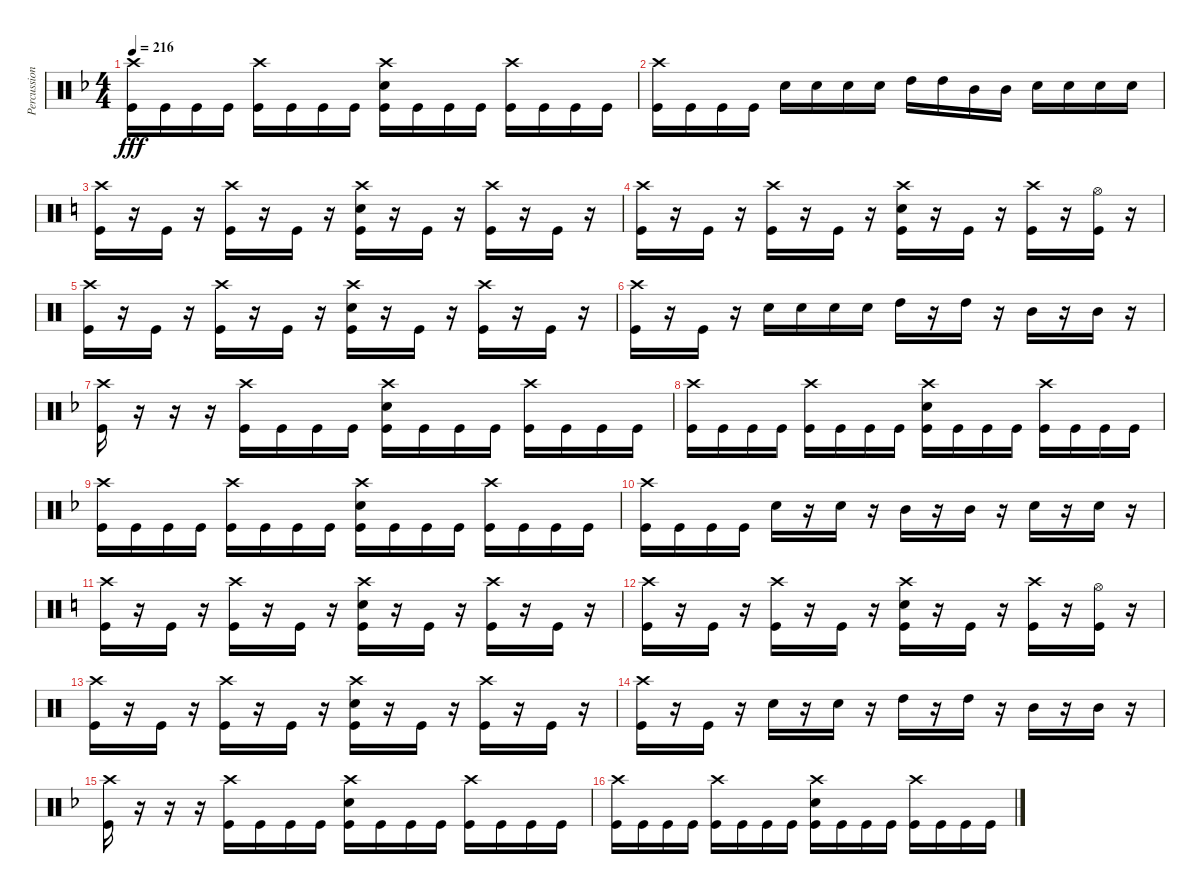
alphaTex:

\track ("Percussion" "Percussion") {instrument percussion}
\staff {score}
\articulation defaults
\ts (4 4)
\tempo 216
\clef neutral
\ks f
("Crash high (hit)" "Kick (hit)").16{dy fff} "Kick (hit)".16 "Kick (hit)".16 "Kick (hit)".16 ("Crash high (hit)" "Kick (hit)").16 "Kick (hit)".16 "Kick (hit)".16 "Kick (hit)".16 ("Crash high (hit)" "Electric Snare (hit)" "Kick (hit)").16 "Kick (hit)".16 "Kick (hit)".16 "Kick (hit)".16 ("Crash high (hit)" "Kick (hit)").16 "Kick (hit)".16 "Kick (hit)".16 "Kick (hit)".16 |
("Crash high (hit)" "Kick (hit)").16 "Kick (hit)".16 "Kick (hit)".16 "Kick (hit)".16 "Electric Snare (hit)".16 "Electric Snare (hit)".16 "Electric Snare (hit)".16 "Electric Snare (hit)".16 "High Tom (hit)".16 "High Tom (hit)".16 "Mid Tom (hit)".16 "Mid Tom (hit)".16 "Electric Snare (hit)".16 "Electric Snare (hit)".16 "Electric Snare (hit)".16 "Electric Snare (hit)".16 |
\ks c
("Crash high (hit)" "Kick (hit)").16 r.16 "Kick (hit)".16 r.16 ("Crash high (hit)" "Kick (hit)").16 r.16 "Kick (hit)".16 r.16 ("Crash high (hit)" "Electric Snare (hit)" "Kick (hit)").16 r.16 "Kick (hit)".16 r.16 ("Crash high (hit)" "Kick (hit)").16 r.16 "Kick (hit)".16 r.16 |
("Crash high (hit)" "Kick (hit)").16 r.16 "Kick (hit)".16 r.16 ("Crash high (hit)" "Kick (hit)").16 r.16 "Kick (hit)".16 r.16 ("Crash high (hit)" "Electric Snare (hit)" "Kick (hit)").16 r.16 "Kick (hit)".16 r.16 ("Crash high (hit)" "Kick (hit)").16 r.16 ("Hi-Hat (open)" "Kick (hit)").16 r.16 |
("Crash high (hit)" "Kick (hit)").16 r.16 "Kick (hit)".16 r.16 ("Crash high (hit)" "Kick (hit)").16 r.16 "Kick (hit)".16 r.16 ("Crash high (hit)" "Electric Snare (hit)" "Kick (hit)").16 r.16 "Kick (hit)".16 r.16 ("Crash high (hit)" "Kick (hit)").16 r.16 "Kick (hit)".16 r.16 |
("Crash high (hit)" "Kick (hit)").16 r.16 "Kick (hit)".16 r.16 "Electric Snare (hit)".16 "Electric Snare (hit)".16 "Electric Snare (hit)".16 "Electric Snare (hit)".16 "High Tom (hit)".16 r.16 "High Tom (hit)".16 r.16 "Mid Tom (hit)".16 r.16 "Mid Tom (hit)".16 r.16 |
\ks f
("Crash high (hit)" "Kick (hit)").16 r.16 r.16 r.16 ("Crash high (hit)" "Kick (hit)").16 "Kick (hit)".16 "Kick (hit)".16 "Kick (hit)".16 ("Crash high (hit)" "Electric Snare (hit)" "Kick (hit)").16 "Kick (hit)".16 "Kick (hit)".16 "Kick (hit)".16 ("Crash high (hit)" "Kick (hit)").16 "Kick (hit)".16 "Kick (hit)".16 "Kick (hit)".16 |
("Crash high (hit)" "Kick (hit)").16 "Kick (hit)".16 "Kick (hit)".16 "Kick (hit)".16 ("Crash high (hit)" "Kick (hit)").16 "Kick (hit)".16 "Kick (hit)".16 "Kick (hit)".16 ("Crash high (hit)" "Electric Snare (hit)" "Kick (hit)").16 "Kick (hit)".16 "Kick (hit)".16 "Kick (hit)".16 ("Crash high (hit)" "Kick (hit)").16 "Kick (hit)".16 "Kick (hit)".16 "Kick (hit)".16 |
("Crash high (hit)" "Kick (hit)").16 "Kick (hit)".16 "Kick (hit)".16 "Kick (hit)".16 ("Crash high (hit)" "Kick (hit)").16 "Kick (hit)".16 "Kick (hit)".16 "Kick (hit)".16 ("Crash high (hit)" "Electric Snare (hit)" "Kick (hit)").16 "Kick (hit)".16 "Kick (hit)".16 "Kick (hit)".16 ("Crash high (hit)" "Kick (hit)").16 "Kick (hit)".16 "Kick (hit)".16 "Kick (hit)".16 |
("Crash high (hit)" "Kick (hit)").16 "Kick (hit)".16 "Kick (hit)".16 "Kick (hit)".16 "Electric Snare (hit)".16 r.16 "Electric Snare (hit)".16 r.16 "Mid Tom (hit)".16 r.16 "Mid Tom (hit)".16 r.16 "Electric Snare (hit)".16 r.16 "Electric Snare (hit)".16 r.16 |
\ks c
("Crash high (hit)" "Kick (hit)").16 r.16 "Kick (hit)".16 r.16 ("Crash high (hit)" "Kick (hit)").16 r.16 "Kick (hit)".16 r.16 ("Crash high (hit)" "Electric Snare (hit)" "Kick (hit)").16 r.16 "Kick (hit)".16 r.16 ("Crash high (hit)" "Kick (hit)").16 r.16 "Kick (hit)".16 r.16 |
("Crash high (hit)" "Kick (hit)").16 r.16 "Kick (hit)".16 r.16 ("Crash high (hit)" "Kick (hit)").16 r.16 "Kick (hit)".16 r.16 ("Crash high (hit)" "Electric Snare (hit)" "Kick (hit)").16 r.16 "Kick (hit)".16 r.16 ("Crash high (hit)" "Kick (hit)").16 r.16 ("Hi-Hat (open)" "Kick (hit)").16 r.16 |
("Crash high (hit)" "Kick (hit)").16 r.16 "Kick (hit)".16 r.16 ("Crash high (hit)" "Kick (hit)").16 r.16 "Kick (hit)".16 r.16 ("Crash high (hit)" "Electric Snare (hit)" "Kick (hit)").16 r.16 "Kick (hit)".16 r.16 ("Crash high (hit)" "Kick (hit)").16 r.16 "Kick (hit)".16 r.16 |
("Crash high (hit)" "Kick (hit)").16 r.16 "Kick (hit)".16 r.16 "Electric Snare (hit)".16 r.16 "Electric Snare (hit)".16 r.16 "High Tom (hit)".16 r.16 "High Tom (hit)".16 r.16 "Mid Tom (hit)".16 r.16 "Mid Tom (hit)".16 r.16 |
\ks f
("Crash high (hit)" "Kick (hit)").16 r.16 r.16 r.16 ("Crash high (hit)" "Kick (hit)").16 "Kick (hit)".16 "Kick (hit)".16 "Kick (hit)".16 ("Crash high (hit)" "Electric Snare (hit)" "Kick (hit)").16 "Kick (hit)".16 "Kick (hit)".16 "Kick (hit)".16 ("Crash high (hit)" "Kick (hit)").16 "Kick (hit)".16 "Kick (hit)".16 "Kick (hit)".16 |
("Crash high (hit)" "Kick (hit)").16 "Kick (hit)".16 "Kick (hit)".16 "Kick (hit)".16 ("Crash high (hit)" "Kick (hit)").16 "Kick (hit)".16 "Kick (hit)".16 "Kick (hit)".16 ("Crash high (hit)" "Electric Snare (hit)" "Kick (hit)").16 "Kick (hit)".16 "Kick (hit)".16 "Kick (hit)".16 ("Crash high (hit)" "Kick (hit)").16 "Kick (hit)".16 "Kick (hit)".16 "Kick (hit)".16
